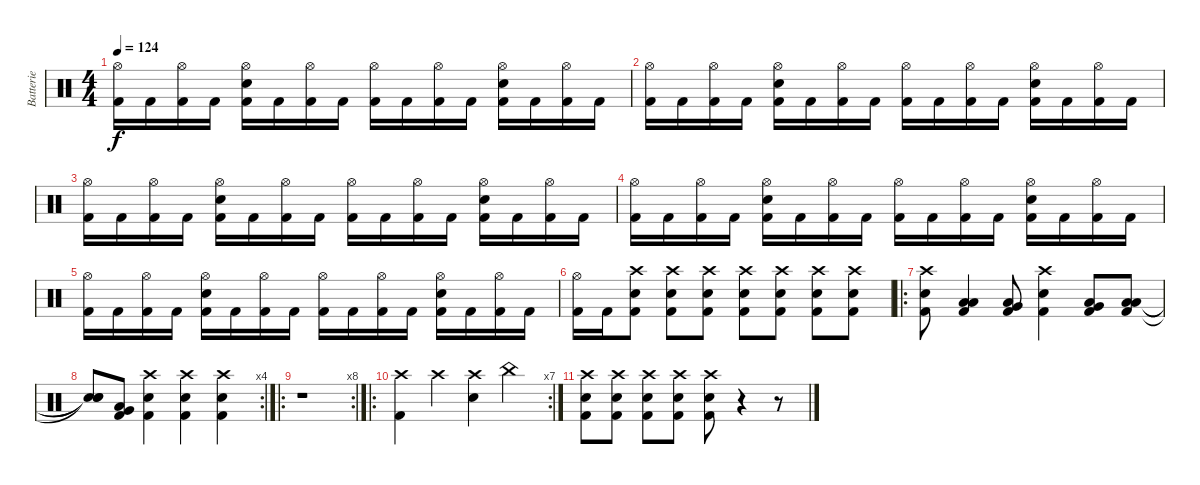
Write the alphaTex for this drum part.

\track ("Batterie" "Batterie") {instrument percussion}
\staff {score}
\articulation defaults
\ts (4 4)
\tempo 124
\clef neutral
\ks c
("Hi-Hat (open)" "Kick (hit) 2").16{dy f} "Kick (hit) 2".16 ("Hi-Hat (open)" "Kick (hit) 2").16 "Kick (hit) 2".16 ("Hi-Hat (open)" "Electric Snare (hit)" "Kick (hit) 2").16 "Kick (hit) 2".16 ("Hi-Hat (open)" "Kick (hit) 2").16 "Kick (hit) 2".16 ("Hi-Hat (open)" "Kick (hit) 2").16 "Kick (hit) 2".16 ("Hi-Hat (open)" "Kick (hit) 2").16 "Kick (hit) 2".16 ("Hi-Hat (open)" "Electric Snare (hit)" "Kick (hit) 2").16 "Kick (hit) 2".16 ("Hi-Hat (open)" "Kick (hit) 2").16 "Kick (hit) 2".16 |
("Hi-Hat (open)" "Kick (hit) 2").16 "Kick (hit) 2".16 ("Hi-Hat (open)" "Kick (hit) 2").16 "Kick (hit) 2".16 ("Hi-Hat (open)" "Electric Snare (hit)" "Kick (hit) 2").16 "Kick (hit) 2".16 ("Hi-Hat (open)" "Kick (hit) 2").16 "Kick (hit) 2".16 ("Hi-Hat (open)" "Kick (hit) 2").16 "Kick (hit) 2".16 ("Hi-Hat (open)" "Kick (hit) 2").16 "Kick (hit) 2".16 ("Hi-Hat (open)" "Electric Snare (hit)" "Kick (hit) 2").16 "Kick (hit) 2".16 ("Hi-Hat (open)" "Kick (hit) 2").16 "Kick (hit) 2".16 |
("Hi-Hat (open)" "Kick (hit) 2").16 "Kick (hit) 2".16 ("Hi-Hat (open)" "Kick (hit) 2").16 "Kick (hit) 2".16 ("Hi-Hat (open)" "Electric Snare (hit)" "Kick (hit) 2").16 "Kick (hit) 2".16 ("Hi-Hat (open)" "Kick (hit) 2").16 "Kick (hit) 2".16 ("Hi-Hat (open)" "Kick (hit) 2").16 "Kick (hit) 2".16 ("Hi-Hat (open)" "Kick (hit) 2").16 "Kick (hit) 2".16 ("Hi-Hat (open)" "Electric Snare (hit)" "Kick (hit) 2").16 "Kick (hit) 2".16 ("Hi-Hat (open)" "Kick (hit) 2").16 "Kick (hit) 2".16 |
("Hi-Hat (open)" "Kick (hit) 2").16 "Kick (hit) 2".16 ("Hi-Hat (open)" "Kick (hit) 2").16 "Kick (hit) 2".16 ("Hi-Hat (open)" "Electric Snare (hit)" "Kick (hit) 2").16 "Kick (hit) 2".16 ("Hi-Hat (open)" "Kick (hit) 2").16 "Kick (hit) 2".16 ("Hi-Hat (open)" "Kick (hit) 2").16 "Kick (hit) 2".16 ("Hi-Hat (open)" "Kick (hit) 2").16 "Kick (hit) 2".16 ("Hi-Hat (open)" "Electric Snare (hit)" "Kick (hit) 2").16 "Kick (hit) 2".16 ("Hi-Hat (open)" "Kick (hit) 2").16 "Kick (hit) 2".16 |
("Hi-Hat (open)" "Kick (hit) 2").16 "Kick (hit) 2".16 ("Hi-Hat (open)" "Kick (hit) 2").16 "Kick (hit) 2".16 ("Hi-Hat (open)" "Electric Snare (hit)" "Kick (hit) 2").16 "Kick (hit) 2".16 ("Hi-Hat (open)" "Kick (hit) 2").16 "Kick (hit) 2".16 ("Hi-Hat (open)" "Kick (hit) 2").16 "Kick (hit) 2".16 ("Hi-Hat (open)" "Kick (hit) 2").16 "Kick (hit) 2".16 ("Hi-Hat (open)" "Electric Snare (hit)" "Kick (hit) 2").16 "Kick (hit) 2".16 ("Hi-Hat (open)" "Kick (hit) 2").16 "Kick (hit) 2".16 |
("Hi-Hat (open)" "Kick (hit) 2").16 "Kick (hit) 2".16 ("Crash high (hit)" "Electric Snare (hit)" "Kick (hit) 2").8 ("Crash high (hit)" "Electric Snare (hit)" "Kick (hit) 2").8 ("Crash high (hit)" "Electric Snare (hit)" "Kick (hit) 2").8 ("Crash high (hit)" "Electric Snare (hit)" "Kick (hit) 2").8 ("Crash high (hit)" "Electric Snare (hit)" "Kick (hit) 2").8 ("Crash high (hit)" "Electric Snare (hit)" "Kick (hit) 2").8 ("Crash high (hit)" "Electric Snare (hit)" "Kick (hit) 2").8 |
\ro
("Crash high (hit)" "Electric Snare (hit)" "Kick (hit) 2").8 ("Low Tom (hit)" "Low Floor Tom (hit)" "Kick (hit) 2").4 ("Very Low Tom (hit)" "Low Floor Tom (hit)" "Kick (hit) 2").8 ("Crash high (hit)" "Electric Snare (hit)" "Kick (hit) 2").4 ("Very Low Tom (hit)" "Low Floor Tom (hit)" "Kick (hit) 2").8 ("Low Tom (hit)" "Low Floor Tom (hit)" "Kick (hit) 2").8 |
\rc 4
("Snare (hit)"{t} "Snare (hit)"{t} "Snare (hit)"{t}).8 ("Low Tom (hit)" "Very Low Tom (hit)" "Kick (hit) 2").8 ("Crash high (hit)" "Electric Snare (hit)" "Kick (hit) 2").4 ("Crash high (hit)" "Electric Snare (hit)" "Kick (hit) 2").4 ("Crash high (hit)" "Electric Snare (hit)" "Kick (hit) 2").4 |
\ro
\rc 8
r.1 |
\ro
\rc 7
("Crash high (hit)" "Kick (hit) 2").4 "Crash high (hit)".4 ("Crash high (hit)" "Electric Snare (hit)").4 "China (hit)".4 |
("Crash high (hit)" "Electric Snare (hit)" "Kick (hit) 2").8 ("Crash high (hit)" "Electric Snare (hit)" "Kick (hit) 2").8 ("Crash high (hit)" "Electric Snare (hit)" "Kick (hit) 2").8 ("Crash high (hit)" "Electric Snare (hit)" "Kick (hit) 2").8 ("Crash high (hit)" "Electric Snare (hit)" "Kick (hit) 2").8 r.4 r.8
